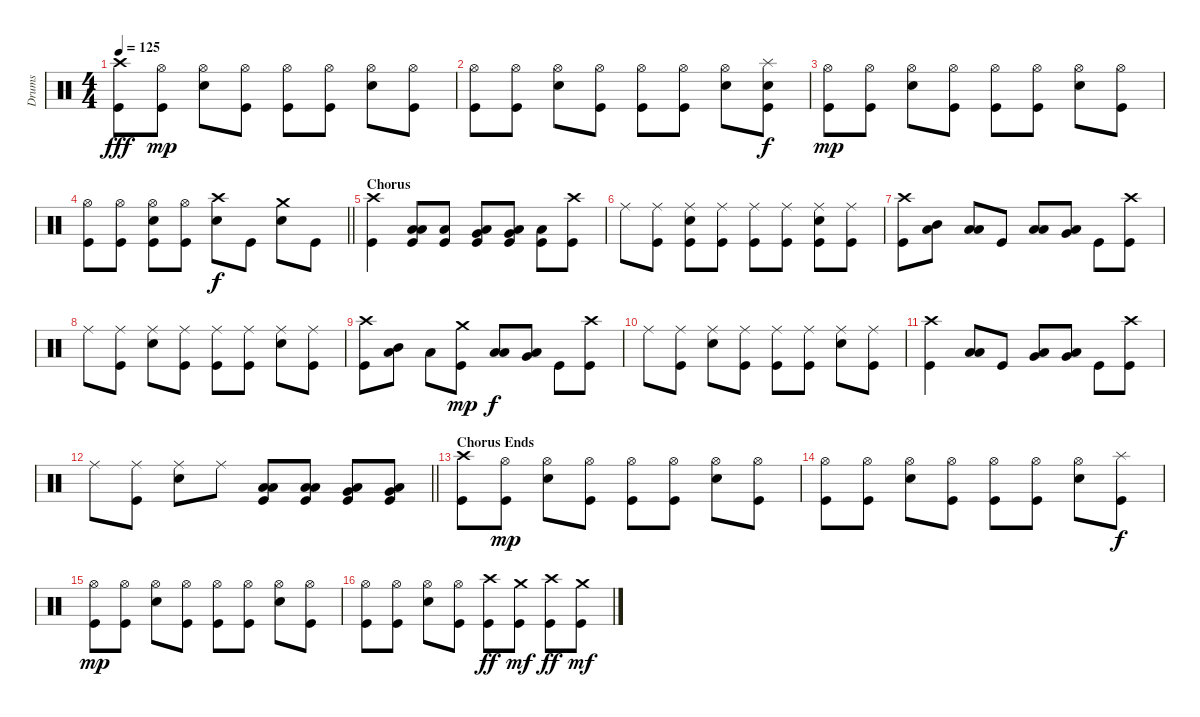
\track ("Drums" "Drums") {instrument percussion}
\staff {score}
\articulation defaults
\ts (4 4)
\tempo 125
\clef neutral
\ks c
("Crash high (hit)" "Kick (hit)").8{dy fff} ("Hi-Hat (open)" "Kick (hit)").8{dy mp} ("Hi-Hat (open)" "Snare (hit) 2").8 ("Hi-Hat (open)" "Kick (hit)").8 ("Hi-Hat (open)" "Kick (hit)").8 ("Hi-Hat (open)" "Kick (hit)").8 ("Hi-Hat (open)" "Snare (hit) 2").8 ("Hi-Hat (open)" "Kick (hit)").8 |
("Hi-Hat (open)" "Kick (hit)").8 ("Hi-Hat (open)" "Kick (hit)").8 ("Hi-Hat (open)" "Snare (hit) 2").8 ("Hi-Hat (open)" "Kick (hit)").8 ("Hi-Hat (open)" "Kick (hit)").8 ("Hi-Hat (open)" "Kick (hit)").8 ("Hi-Hat (open)" "Snare (hit) 2").8 ("Splash (hit)" "Snare (hit) 2" "Kick (hit)").8{dy f} |
("Hi-Hat (open)" "Kick (hit)").8{dy mp} ("Hi-Hat (open)" "Kick (hit)").8 ("Hi-Hat (open)" "Snare (hit) 2").8 ("Hi-Hat (open)" "Kick (hit)").8 ("Hi-Hat (open)" "Kick (hit)").8 ("Hi-Hat (open)" "Kick (hit)").8 ("Hi-Hat (open)" "Snare (hit) 2").8 ("Hi-Hat (open)" "Kick (hit)").8 |
\barLineRight lightlight
("Hi-Hat (open)" "Kick (hit)").8 ("Hi-Hat (open)" "Kick (hit)").8 ("Hi-Hat (open)" "Snare (hit) 2" "Kick (hit)").8 ("Hi-Hat (open)" "Kick (hit)").8 ("Crash high (hit)" "Snare (hit) 2").8{dy f} "Kick (hit)".8 ("Crash medium (hit)" "Snare (hit) 2").8 "Kick (hit)".8 |
\section ("" "Chorus")
("Crash high (hit)" "Kick (hit)").4 ("Low Tom (hit)" "Low Floor Tom (hit)" "Kick (hit)").8 ("Low Floor Tom (hit)" "Kick (hit)").8 ("Very Low Tom (hit)" "Low Floor Tom (hit)" "Kick (hit)").8 ("Very Low Tom (hit)" "Low Floor Tom (hit)" "Kick (hit)").8 ("Low Floor Tom (hit)" "Kick (hit)").8 ("Crash high (hit)" "Kick (hit)").8 |
"Ride (middle)".8 ("Ride (middle)" "Kick (hit)").8 ("Ride (middle)" "Snare (hit) 2" "Kick (hit)").8 ("Ride (middle)" "Kick (hit)").8 ("Ride (middle)" "Kick (hit)").8 ("Ride (middle)" "Kick (hit)").8 ("Ride (middle)" "Snare (hit) 2" "Kick (hit)").8 ("Ride (middle)" "Kick (hit)").8 |
("Crash high (hit)" "Kick (hit)").8 ("Mid Tom (hit)" "Low Floor Tom (hit)").8 ("Low Tom (hit)" "Low Floor Tom (hit)").8 "Kick (hit)".8 ("Low Tom (hit)" "Low Floor Tom (hit)").8 ("Very Low Tom (hit)" "Low Floor Tom (hit)").8 "Kick (hit)".8 ("Crash high (hit)" "Kick (hit)").8 |
"Ride (middle)".8 ("Ride (middle)" "Kick (hit)").8 ("Ride (middle)" "Snare (hit) 2").8 ("Ride (middle)" "Kick (hit)").8 ("Ride (middle)" "Kick (hit)").8 ("Ride (middle)" "Kick (hit)").8 ("Ride (middle)" "Snare (hit) 2").8 ("Ride (middle)" "Kick (hit)").8 |
("Crash high (hit)" "Kick (hit)").8 ("Mid Tom (hit)" "Low Floor Tom (hit)").8 "Low Floor Tom (hit)".8 ("Crash medium (hit)" "Kick (hit)").8{dy mp} ("Low Tom (hit)" "Low Floor Tom (hit)").8{dy f} ("Very Low Tom (hit)" "Low Floor Tom (hit)").8 "Kick (hit)".8 ("Crash high (hit)" "Kick (hit)").8 |
"Ride (middle)".8 ("Ride (middle)" "Kick (hit)").8 ("Ride (middle)" "Snare (hit) 2").8 ("Ride (middle)" "Kick (hit)").8 ("Ride (middle)" "Kick (hit)").8 ("Ride (middle)" "Kick (hit)").8 ("Ride (middle)" "Snare (hit) 2").8 ("Ride (middle)" "Kick (hit)").8 |
("Crash high (hit)" "Kick (hit)").4 ("Low Tom (hit)" "Low Floor Tom (hit)").8 "Kick (hit)".8 ("Very Low Tom (hit)" "Low Floor Tom (hit)").8 ("Very Low Tom (hit)" "Low Floor Tom (hit)").8 "Kick (hit)".8 ("Crash high (hit)" "Kick (hit)").8 |
\barLineRight lightlight "Ride (middle)".8
("Ride (middle)" "Kick (hit)").8 ("Ride (middle)" "Snare (hit) 2").8 "Ride (middle)".8 ("Low Tom (hit)" "Low Floor Tom (hit)" "Kick (hit)").8 ("Low Tom (hit)" "Low Floor Tom (hit)" "Kick (hit)").8 ("Very Low Tom (hit)" "Low Floor Tom (hit)" "Kick (hit)").8 ("Very Low Tom (hit)" "Low Floor Tom (hit)" "Kick (hit)").8 |
\section ("" "Chorus Ends")
("Crash high (hit)" "Kick (hit)").8 ("Hi-Hat (open)" "Kick (hit)").8{dy mp} ("Hi-Hat (open)" "Snare (hit) 2").8 ("Hi-Hat (open)" "Kick (hit)").8 ("Hi-Hat (open)" "Kick (hit)").8 ("Hi-Hat (open)" "Kick (hit)").8 ("Hi-Hat (open)" "Snare (hit) 2").8 ("Hi-Hat (open)" "Kick (hit)").8 |
("Hi-Hat (open)" "Kick (hit)").8 ("Hi-Hat (open)" "Kick (hit)").8 ("Hi-Hat (open)" "Snare (hit) 2").8 ("Hi-Hat (open)" "Kick (hit)").8 ("Hi-Hat (open)" "Kick (hit)").8 ("Hi-Hat (open)" "Kick (hit)").8 ("Hi-Hat (open)" "Snare (hit) 2").8 ("Splash (hit)" "Kick (hit)").8{dy f} |
("Hi-Hat (open)" "Kick (hit)").8{dy mp} ("Hi-Hat (open)" "Kick (hit)").8 ("Hi-Hat (open)" "Snare (hit) 2").8 ("Hi-Hat (open)" "Kick (hit)").8 ("Hi-Hat (open)" "Kick (hit)").8 ("Hi-Hat (open)" "Kick (hit)").8 ("Hi-Hat (open)" "Snare (hit) 2").8 ("Hi-Hat (open)" "Kick (hit)").8 |
("Hi-Hat (open)" "Kick (hit)").8 ("Hi-Hat (open)" "Kick (hit)").8 ("Hi-Hat (open)" "Snare (hit) 2").8 ("Hi-Hat (open)" "Kick (hit)").8 ("Crash high (hit)" "Kick (hit)").8{dy ff} ("Crash medium (hit)" "Kick (hit)").8{dy mf} ("Crash high (hit)" "Kick (hit)").8{dy ff} ("Crash medium (hit)" "Kick (hit)").8{dy mf}
